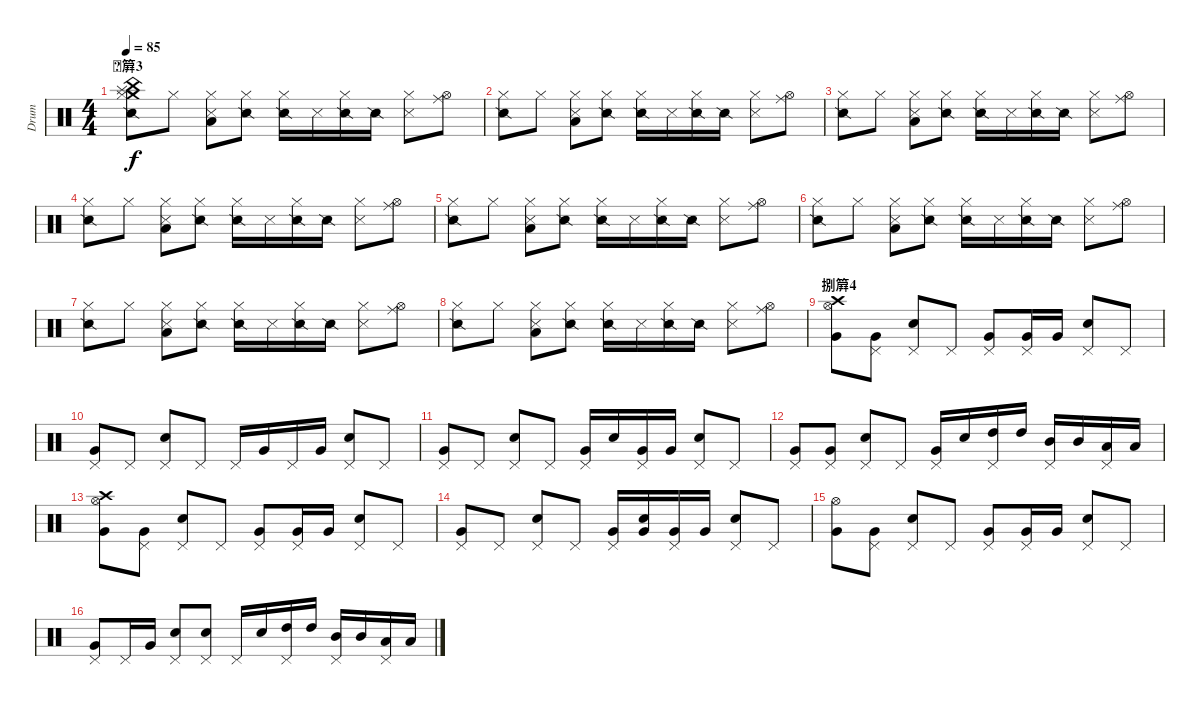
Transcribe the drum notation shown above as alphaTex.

\track ("Drum" "Drum") {instrument percussion}
\staff {score}
\articulation defaults
\ts (4 4)
\section ("" "簈3")
\tempo 85
\clef neutral
\ks c
("Crash medium (hit)" "Splash (hit)" "China (hit)" "Snare (side stick) 2" "Hi-Hat (closed)").8{dy f} "Hi-Hat (closed)".8 ("Metronome (hit)" "Low Floor Tom (hit)" "Hi-Hat (closed)").8 ("Snare (side stick) 2" "Hi-Hat (closed)").8 ("Snare (side stick) 2" "Hi-Hat (closed)").16 "Metronome (hit)".16 ("Snare (side stick) 2" "Hi-Hat (closed)").16 "Snare (side stick) 2".16 ("Metronome (hit)" "Hi-Hat (closed)").8 ("Ride (middle)" "Hi-Hat (open)").8 |
("Snare (side stick) 2" "Hi-Hat (closed)").8 "Hi-Hat (closed)".8 ("Metronome (hit)" "Low Floor Tom (hit)" "Hi-Hat (closed)").8 ("Snare (side stick) 2" "Hi-Hat (closed)").8 ("Snare (side stick) 2" "Hi-Hat (closed)").16 "Metronome (hit)".16 ("Snare (side stick) 2" "Hi-Hat (closed)").16 "Snare (side stick) 2".16 ("Metronome (hit)" "Hi-Hat (closed)").8 ("Ride (middle)" "Hi-Hat (open)").8 |
("Snare (side stick) 2" "Hi-Hat (closed)").8 "Hi-Hat (closed)".8 ("Metronome (hit)" "Low Floor Tom (hit)" "Hi-Hat (closed)").8 ("Snare (side stick) 2" "Hi-Hat (closed)").8 ("Snare (side stick) 2" "Hi-Hat (closed)").16 "Metronome (hit)".16 ("Snare (side stick) 2" "Hi-Hat (closed)").16 "Snare (side stick) 2".16 ("Metronome (hit)" "Hi-Hat (closed)").8 ("Ride (middle)" "Hi-Hat (open)").8 |
("Snare (side stick) 2" "Hi-Hat (closed)").8 "Hi-Hat (closed)".8 ("Metronome (hit)" "Low Floor Tom (hit)" "Hi-Hat (closed)").8 ("Snare (side stick) 2" "Hi-Hat (closed)").8 ("Snare (side stick) 2" "Hi-Hat (closed)").16 "Metronome (hit)".16 ("Snare (side stick) 2" "Hi-Hat (closed)").16 "Snare (side stick) 2".16 ("Metronome (hit)" "Hi-Hat (closed)").8 ("Ride (middle)" "Hi-Hat (open)").8 |
("Snare (side stick) 2" "Hi-Hat (closed)").8 "Hi-Hat (closed)".8 ("Metronome (hit)" "Low Floor Tom (hit)" "Hi-Hat (closed)").8 ("Snare (side stick) 2" "Hi-Hat (closed)").8 ("Snare (side stick) 2" "Hi-Hat (closed)").16 "Metronome (hit)".16 ("Snare (side stick) 2" "Hi-Hat (closed)").16 "Snare (side stick) 2".16 ("Metronome (hit)" "Hi-Hat (closed)").8 ("Ride (middle)" "Hi-Hat (open)").8 |
("Snare (side stick) 2" "Hi-Hat (closed)").8 "Hi-Hat (closed)".8 ("Metronome (hit)" "Low Floor Tom (hit)" "Hi-Hat (closed)").8 ("Snare (side stick) 2" "Hi-Hat (closed)").8 ("Snare (side stick) 2" "Hi-Hat (closed)").16 "Metronome (hit)".16 ("Snare (side stick) 2" "Hi-Hat (closed)").16 "Snare (side stick) 2".16 ("Metronome (hit)" "Hi-Hat (closed)").8 ("Ride (middle)" "Hi-Hat (open)").8 |
("Snare (side stick) 2" "Hi-Hat (closed)").8 "Hi-Hat (closed)".8 ("Metronome (hit)" "Low Floor Tom (hit)" "Hi-Hat (closed)").8 ("Snare (side stick) 2" "Hi-Hat (closed)").8 ("Snare (side stick) 2" "Hi-Hat (closed)").16 "Metronome (hit)".16 ("Snare (side stick) 2" "Hi-Hat (closed)").16 "Snare (side stick) 2".16 ("Metronome (hit)" "Hi-Hat (closed)").8 ("Ride (middle)" "Hi-Hat (open)").8 |
("Snare (side stick) 2" "Hi-Hat (closed)").8 "Hi-Hat (closed)".8 ("Metronome (hit)" "Low Floor Tom (hit)" "Hi-Hat (closed)").8 ("Snare (side stick) 2" "Hi-Hat (closed)").8 ("Snare (side stick) 2" "Hi-Hat (closed)").16 "Metronome (hit)".16 ("Snare (side stick) 2" "Hi-Hat (closed)").16 "Snare (side stick) 2".16 ("Metronome (hit)" "Hi-Hat (closed)").8 ("Ride (middle)" "Hi-Hat (open)").8 |
\section ("" "捌簈4")
("Crash high (hit)" "Very Low Tom (hit)" "Hi-Hat (open)").8 ("Very Low Tom (hit)" "Pedal Hi-Hat (hit)").8 ("Snare (hit) 2" "Pedal Hi-Hat (hit)").8 "Pedal Hi-Hat (hit)".8 ("Very Low Tom (hit)" "Pedal Hi-Hat (hit)").8 ("Very Low Tom (hit)" "Pedal Hi-Hat (hit)").16 "Very Low Tom (hit)".16 ("Snare (hit) 2" "Pedal Hi-Hat (hit)").8 "Pedal Hi-Hat (hit)".8 |
("Very Low Tom (hit)" "Pedal Hi-Hat (hit)").8 "Pedal Hi-Hat (hit)".8 ("Snare (hit) 2" "Pedal Hi-Hat (hit)").8 "Pedal Hi-Hat (hit)".8 "Pedal Hi-Hat (hit)".16 "Very Low Tom (hit)".16 "Pedal Hi-Hat (hit)".16 "Very Low Tom (hit)".16 ("Snare (hit) 2" "Pedal Hi-Hat (hit)").8 "Pedal Hi-Hat (hit)".8 |
("Very Low Tom (hit)" "Pedal Hi-Hat (hit)").8 "Pedal Hi-Hat (hit)".8 ("Snare (hit) 2" "Pedal Hi-Hat (hit)").8 "Pedal Hi-Hat (hit)".8 ("Very Low Tom (hit)" "Pedal Hi-Hat (hit)").16 "Snare (hit) 2".16 ("Very Low Tom (hit)" "Pedal Hi-Hat (hit)").16 "Very Low Tom (hit)".16 ("Snare (hit) 2" "Pedal Hi-Hat (hit)").8 "Pedal Hi-Hat (hit)".8 |
("Very Low Tom (hit)" "Pedal Hi-Hat (hit)").8 ("Very Low Tom (hit)" "Pedal Hi-Hat (hit)").8 ("Snare (hit) 2" "Pedal Hi-Hat (hit)").8 "Pedal Hi-Hat (hit)".8 ("Very Low Tom (hit)" "Pedal Hi-Hat (hit)").16 "Snare (hit) 2".16 ("High Tom (hit)" "Pedal Hi-Hat (hit)").16 "High Tom (hit)".16 ("Mid Tom (hit)" "Pedal Hi-Hat (hit)").16 "Mid Tom (hit)".16 ("Low Tom (hit)" "Pedal Hi-Hat (hit)").16 "Low Tom (hit)".16 |
("Crash high (hit)" "Very Low Tom (hit)" "Hi-Hat (open)").8 ("Very Low Tom (hit)" "Pedal Hi-Hat (hit)").8 ("Snare (hit) 2" "Pedal Hi-Hat (hit)").8 "Pedal Hi-Hat (hit)".8 ("Very Low Tom (hit)" "Pedal Hi-Hat (hit)").8 ("Very Low Tom (hit)" "Pedal Hi-Hat (hit)").16 "Very Low Tom (hit)".16 ("Snare (hit) 2" "Pedal Hi-Hat (hit)").8 "Pedal Hi-Hat (hit)".8 |
("Very Low Tom (hit)" "Pedal Hi-Hat (hit)").8 "Pedal Hi-Hat (hit)".8 ("Snare (hit) 2" "Pedal Hi-Hat (hit)").8 "Pedal Hi-Hat (hit)".8 ("Very Low Tom (hit)" "Pedal Hi-Hat (hit)").16 ("Snare (hit) 2" "Very Low Tom (hit)").16 ("Very Low Tom (hit)" "Pedal Hi-Hat (hit)").16 "Very Low Tom (hit)".16 ("Snare (hit) 2" "Pedal Hi-Hat (hit)").8 "Pedal Hi-Hat (hit)".8 |
("Very Low Tom (hit)" "Hi-Hat (open)").8 ("Very Low Tom (hit)" "Pedal Hi-Hat (hit)").8 ("Snare (hit) 2" "Pedal Hi-Hat (hit)").8 "Pedal Hi-Hat (hit)".8 ("Very Low Tom (hit)" "Pedal Hi-Hat (hit)").8 ("Very Low Tom (hit)" "Pedal Hi-Hat (hit)").16 "Very Low Tom (hit)".16 ("Snare (hit) 2" "Pedal Hi-Hat (hit)").8 "Pedal Hi-Hat (hit)".8 |
("Very Low Tom (hit)" "Pedal Hi-Hat (hit)").8 "Pedal Hi-Hat (hit)".16 "Very Low Tom (hit)".16 ("Snare (hit) 2" "Pedal Hi-Hat (hit)").8 ("Snare (hit) 2" "Pedal Hi-Hat (hit)").8 "Pedal Hi-Hat (hit)".16 "Snare (hit) 2".16 ("High Tom (hit)" "Pedal Hi-Hat (hit)").16 "High Tom (hit)".16 ("Mid Tom (hit)" "Pedal Hi-Hat (hit)").16 "Mid Tom (hit)".16 ("Low Tom (hit)" "Pedal Hi-Hat (hit)").16 "Low Tom (hit)".16
